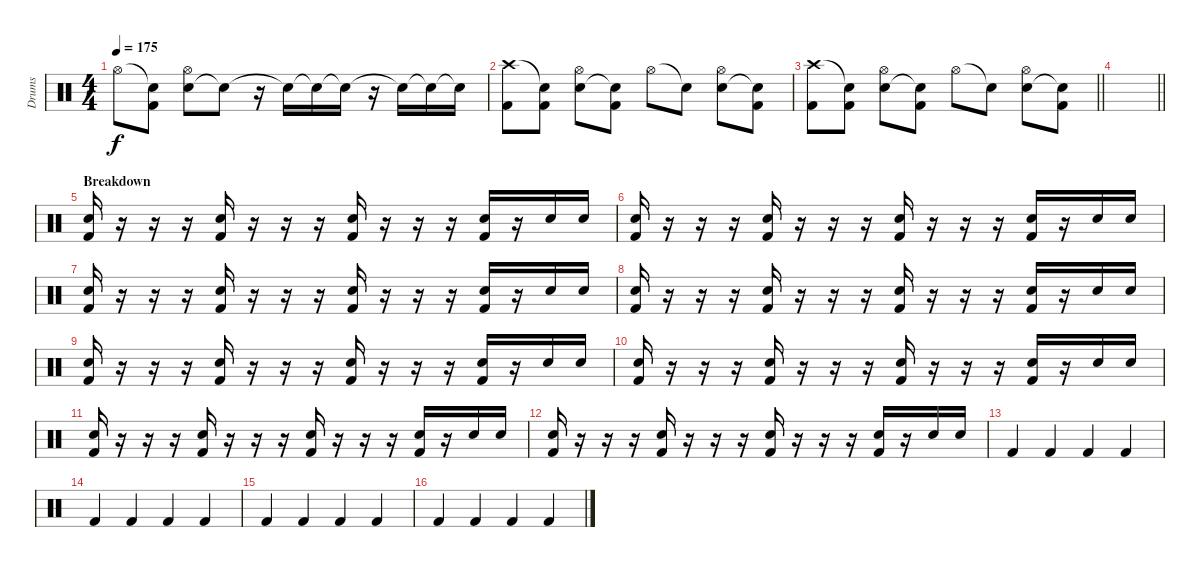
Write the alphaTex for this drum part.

\track ("Drums" "Drums") {instrument percussion}
\staff {score}
\articulation defaults
\ts (4 4)
\tempo 175
\clef neutral
\ks c "Hi-Hat (open)".8{dy f}
("Snare (hit)"{t} "Kick (hit) 2").8 ("Snare (hit) 2" "Hi-Hat (open)").8 "Snare (hit)"{t}.8 r.16 "Snare (hit)"{t}.16 "Snare (hit)"{t}.16 "Snare (hit)"{t}.16 r.16 "Snare (hit)"{t}.16 "Snare (hit)"{t}.16 "Snare (hit)"{t}.16 |
("Crash high (hit)" "Kick (hit) 2").8 ("Snare (hit)"{t} "Kick (hit) 2").8 ("Snare (hit) 2" "Hi-Hat (open)").8 ("Snare (hit)"{t} "Kick (hit) 2").8 "Hi-Hat (open)".8 "Snare (hit)"{t}.8 ("Snare (hit) 2" "Hi-Hat (open)").8 ("Snare (hit)"{t} "Kick (hit) 2").8 |
\barLineRight lightlight
("Crash high (hit)" "Kick (hit) 2").8 ("Snare (hit)"{t} "Kick (hit) 2").8 ("Snare (hit) 2" "Hi-Hat (open)").8 ("Snare (hit)"{t} "Kick (hit) 2").8 "Hi-Hat (open)".8 "Snare (hit)"{t}.8 ("Snare (hit) 2" "Hi-Hat (open)").8 ("Snare (hit)"{t} "Kick (hit) 2").8 |
\barLineRight lightlight
|
\section ("" "Breakdown")
("Snare (hit) 2" "Kick (hit) 2").16 r.16 r.16 r.16 ("Snare (hit) 2" "Kick (hit) 2").16 r.16 r.16 r.16 ("Snare (hit) 2" "Kick (hit) 2").16 r.16 r.16 r.16 ("Snare (hit) 2" "Kick (hit) 2").16 r.16 "Snare (hit) 2".16 "Snare (hit) 2".16 |
("Snare (hit) 2" "Kick (hit) 2").16 r.16 r.16 r.16 ("Snare (hit) 2" "Kick (hit) 2").16 r.16 r.16 r.16 ("Snare (hit) 2" "Kick (hit) 2").16 r.16 r.16 r.16 ("Snare (hit) 2" "Kick (hit) 2").16 r.16 "Snare (hit) 2".16 "Snare (hit) 2".16 |
("Snare (hit) 2" "Kick (hit) 2").16 r.16 r.16 r.16 ("Snare (hit) 2" "Kick (hit) 2").16 r.16 r.16 r.16 ("Snare (hit) 2" "Kick (hit) 2").16 r.16 r.16 r.16 ("Snare (hit) 2" "Kick (hit) 2").16 r.16 "Snare (hit) 2".16 "Snare (hit) 2".16 |
("Snare (hit) 2" "Kick (hit) 2").16 r.16 r.16 r.16 ("Snare (hit) 2" "Kick (hit) 2").16 r.16 r.16 r.16 ("Snare (hit) 2" "Kick (hit) 2").16 r.16 r.16 r.16 ("Snare (hit) 2" "Kick (hit) 2").16 r.16 "Snare (hit) 2".16 "Snare (hit) 2".16 |
("Snare (hit) 2" "Kick (hit) 2").16 r.16 r.16 r.16 ("Snare (hit) 2" "Kick (hit) 2").16 r.16 r.16 r.16 ("Snare (hit) 2" "Kick (hit) 2").16 r.16 r.16 r.16 ("Snare (hit) 2" "Kick (hit) 2").16 r.16 "Snare (hit) 2".16 "Snare (hit) 2".16 |
("Snare (hit) 2" "Kick (hit) 2").16 r.16 r.16 r.16 ("Snare (hit) 2" "Kick (hit) 2").16 r.16 r.16 r.16 ("Snare (hit) 2" "Kick (hit) 2").16 r.16 r.16 r.16 ("Snare (hit) 2" "Kick (hit) 2").16 r.16 "Snare (hit) 2".16 "Snare (hit) 2".16 |
("Snare (hit) 2" "Kick (hit) 2").16 r.16 r.16 r.16 ("Snare (hit) 2" "Kick (hit) 2").16 r.16 r.16 r.16 ("Snare (hit) 2" "Kick (hit) 2").16 r.16 r.16 r.16 ("Snare (hit) 2" "Kick (hit) 2").16 r.16 "Snare (hit) 2".16 "Snare (hit) 2".16 |
("Snare (hit) 2" "Kick (hit) 2").16 r.16 r.16 r.16 ("Snare (hit) 2" "Kick (hit) 2").16 r.16 r.16 r.16 ("Snare (hit) 2" "Kick (hit) 2").16 r.16 r.16 r.16 ("Snare (hit) 2" "Kick (hit) 2").16 r.16 "Snare (hit) 2".16 "Snare (hit) 2".16 |
"Kick (hit) 2".4 "Kick (hit) 2".4 "Kick (hit) 2".4 "Kick (hit) 2".4 |
"Kick (hit) 2".4 "Kick (hit) 2".4 "Kick (hit) 2".4 "Kick (hit) 2".4 |
"Kick (hit) 2".4 "Kick (hit) 2".4 "Kick (hit) 2".4 "Kick (hit) 2".4 |
"Kick (hit) 2".4 "Kick (hit) 2".4 "Kick (hit) 2".4 "Kick (hit) 2".4
